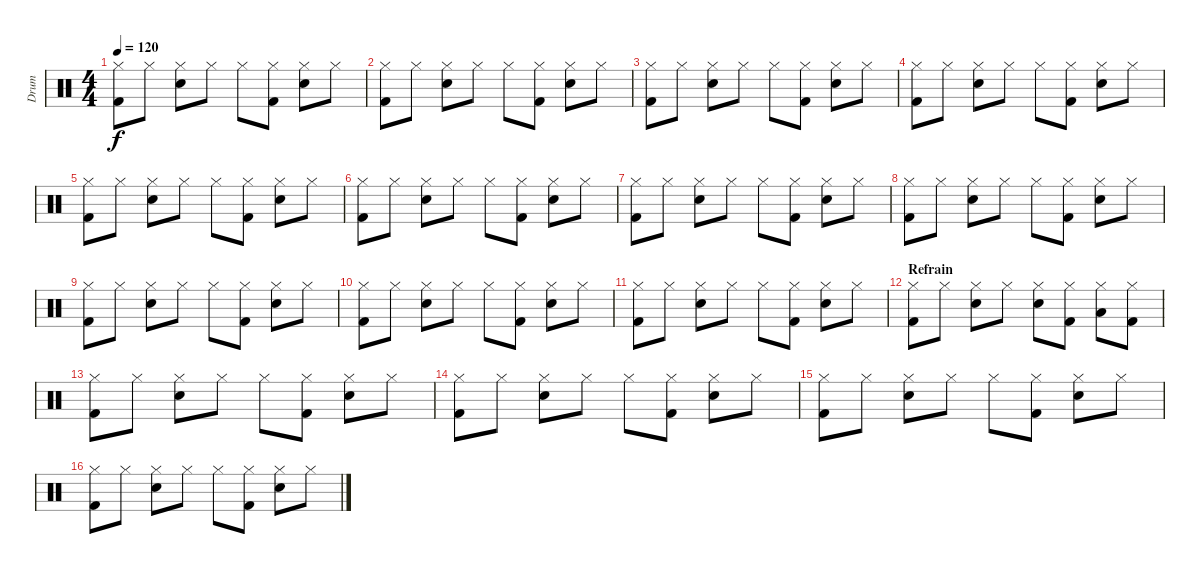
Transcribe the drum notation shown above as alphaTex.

\track ("Drum" "Drum") {instrument percussion}
\staff {score}
\articulation defaults
\ts (4 4)
\tempo 120
\clef neutral
\ks c
("Kick (hit) 2" "Hi-Hat (closed)").8{dy f} "Hi-Hat (closed)".8 ("Snare (hit) 2" "Hi-Hat (closed)").8 "Hi-Hat (closed)".8 "Hi-Hat (closed)".8 ("Kick (hit) 2" "Hi-Hat (closed)").8 ("Snare (hit) 2" "Hi-Hat (closed)").8 "Hi-Hat (closed)".8 |
("Kick (hit) 2" "Hi-Hat (closed)").8 "Hi-Hat (closed)".8 ("Snare (hit) 2" "Hi-Hat (closed)").8 "Hi-Hat (closed)".8 "Hi-Hat (closed)".8 ("Kick (hit) 2" "Hi-Hat (closed)").8 ("Snare (hit) 2" "Hi-Hat (closed)").8 "Hi-Hat (closed)".8 |
("Kick (hit) 2" "Hi-Hat (closed)").8 "Hi-Hat (closed)".8 ("Snare (hit) 2" "Hi-Hat (closed)").8 "Hi-Hat (closed)".8 "Hi-Hat (closed)".8 ("Kick (hit) 2" "Hi-Hat (closed)").8 ("Snare (hit) 2" "Hi-Hat (closed)").8 "Hi-Hat (closed)".8 |
("Kick (hit) 2" "Hi-Hat (closed)").8 "Hi-Hat (closed)".8 ("Snare (hit) 2" "Hi-Hat (closed)").8 "Hi-Hat (closed)".8 "Hi-Hat (closed)".8 ("Kick (hit) 2" "Hi-Hat (closed)").8 ("Snare (hit) 2" "Hi-Hat (closed)").8 "Hi-Hat (closed)".8 |
("Kick (hit) 2" "Hi-Hat (closed)").8 "Hi-Hat (closed)".8 ("Snare (hit) 2" "Hi-Hat (closed)").8 "Hi-Hat (closed)".8 "Hi-Hat (closed)".8 ("Kick (hit) 2" "Hi-Hat (closed)").8 ("Snare (hit) 2" "Hi-Hat (closed)").8 "Hi-Hat (closed)".8 |
("Kick (hit) 2" "Hi-Hat (closed)").8 "Hi-Hat (closed)".8 ("Snare (hit) 2" "Hi-Hat (closed)").8 "Hi-Hat (closed)".8 "Hi-Hat (closed)".8 ("Kick (hit) 2" "Hi-Hat (closed)").8 ("Snare (hit) 2" "Hi-Hat (closed)").8 "Hi-Hat (closed)".8 |
("Kick (hit) 2" "Hi-Hat (closed)").8 "Hi-Hat (closed)".8 ("Snare (hit) 2" "Hi-Hat (closed)").8 "Hi-Hat (closed)".8 "Hi-Hat (closed)".8 ("Kick (hit) 2" "Hi-Hat (closed)").8 ("Snare (hit) 2" "Hi-Hat (closed)").8 "Hi-Hat (closed)".8 |
("Kick (hit) 2" "Hi-Hat (closed)").8 "Hi-Hat (closed)".8 ("Snare (hit) 2" "Hi-Hat (closed)").8 "Hi-Hat (closed)".8 "Hi-Hat (closed)".8 ("Kick (hit) 2" "Hi-Hat (closed)").8 ("Snare (hit) 2" "Hi-Hat (closed)").8 "Hi-Hat (closed)".8 |
("Kick (hit) 2" "Hi-Hat (closed)").8 "Hi-Hat (closed)".8 ("Snare (hit) 2" "Hi-Hat (closed)").8 "Hi-Hat (closed)".8 "Hi-Hat (closed)".8 ("Kick (hit) 2" "Hi-Hat (closed)").8 ("Snare (hit) 2" "Hi-Hat (closed)").8 "Hi-Hat (closed)".8 |
("Kick (hit) 2" "Hi-Hat (closed)").8 "Hi-Hat (closed)".8 ("Snare (hit) 2" "Hi-Hat (closed)").8 "Hi-Hat (closed)".8 "Hi-Hat (closed)".8 ("Kick (hit) 2" "Hi-Hat (closed)").8 ("Snare (hit) 2" "Hi-Hat (closed)").8 "Hi-Hat (closed)".8 |
("Kick (hit) 2" "Hi-Hat (closed)").8 "Hi-Hat (closed)".8 ("Snare (hit) 2" "Hi-Hat (closed)").8 "Hi-Hat (closed)".8 "Hi-Hat (closed)".8 ("Kick (hit) 2" "Hi-Hat (closed)").8 ("Snare (hit) 2" "Hi-Hat (closed)").8 "Hi-Hat (closed)".8 |
\section ("" "Refrain")
("Kick (hit) 2" "Hi-Hat (closed)").8 "Hi-Hat (closed)".8 ("Snare (hit) 2" "Hi-Hat (closed)").8 "Hi-Hat (closed)".8 ("Snare (hit) 2" "Hi-Hat (closed)").8 ("Kick (hit) 2" "Hi-Hat (closed)").8 ("Low Floor Tom (hit)" "Hi-Hat (closed)").8 ("Kick (hit) 2" "Hi-Hat (closed)").8 |
("Kick (hit) 2" "Hi-Hat (closed)").8 "Hi-Hat (closed)".8 ("Snare (hit) 2" "Hi-Hat (closed)").8 "Hi-Hat (closed)".8 "Hi-Hat (closed)".8 ("Kick (hit) 2" "Hi-Hat (closed)").8 ("Snare (hit) 2" "Hi-Hat (closed)").8 "Hi-Hat (closed)".8 |
("Kick (hit) 2" "Hi-Hat (closed)").8 "Hi-Hat (closed)".8 ("Snare (hit) 2" "Hi-Hat (closed)").8 "Hi-Hat (closed)".8 "Hi-Hat (closed)".8 ("Kick (hit) 2" "Hi-Hat (closed)").8 ("Snare (hit) 2" "Hi-Hat (closed)").8 "Hi-Hat (closed)".8 |
("Kick (hit) 2" "Hi-Hat (closed)").8 "Hi-Hat (closed)".8 ("Snare (hit) 2" "Hi-Hat (closed)").8 "Hi-Hat (closed)".8 "Hi-Hat (closed)".8 ("Kick (hit) 2" "Hi-Hat (closed)").8 ("Snare (hit) 2" "Hi-Hat (closed)").8 "Hi-Hat (closed)".8 |
("Kick (hit) 2" "Hi-Hat (closed)").8 "Hi-Hat (closed)".8 ("Snare (hit) 2" "Hi-Hat (closed)").8 "Hi-Hat (closed)".8 "Hi-Hat (closed)".8 ("Kick (hit) 2" "Hi-Hat (closed)").8 ("Snare (hit) 2" "Hi-Hat (closed)").8 "Hi-Hat (closed)".8
